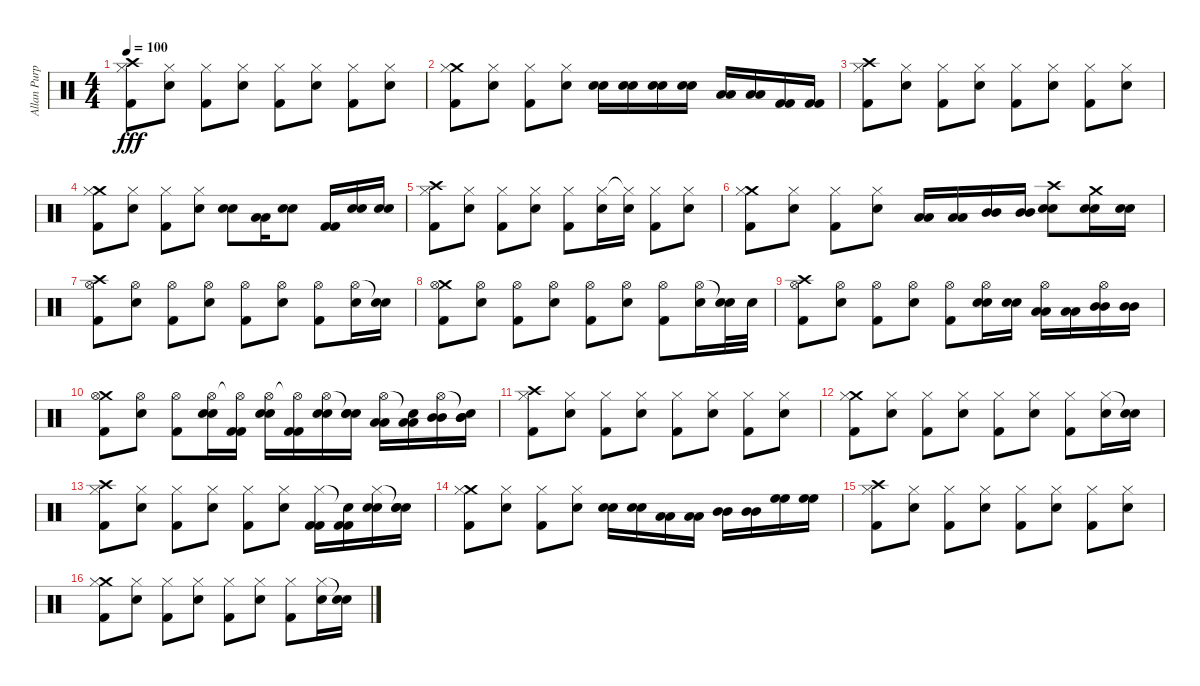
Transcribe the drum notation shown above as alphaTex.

\track ("Allan Purple" "Allan Purp") {instrument percussion}
\staff {score}
\articulation defaults
\ts (4 4)
\tempo 100
\clef neutral
\ks c
("Crash high (hit)" "Hi-Hat (closed)" "Kick (hit) 2").8{dy fff} ("Hi-Hat (closed)" "Electric Snare (hit)").8 ("Hi-Hat (closed)" "Kick (hit) 2").8 ("Hi-Hat (closed)" "Electric Snare (hit)").8 ("Hi-Hat (closed)" "Kick (hit) 2").8 ("Hi-Hat (closed)" "Electric Snare (hit)").8 ("Hi-Hat (closed)" "Kick (hit) 2").8 ("Hi-Hat (closed)" "Electric Snare (hit)").8 |
("Crash medium (hit)" "Hi-Hat (closed)" "Kick (hit) 2").8 ("Hi-Hat (closed)" "Electric Snare (hit)").8 ("Hi-Hat (closed)" "Kick (hit) 2").8 ("Hi-Hat (closed)" "Electric Snare (hit)").8 ("Electric Snare (hit)" "Electric Snare (hit)").16 ("Electric Snare (hit)" "Electric Snare (hit)").16 ("Electric Snare (hit)" "Electric Snare (hit)").16 ("Electric Snare (hit)" "Electric Snare (hit)").16 ("Low Tom (hit)" "Low Tom (hit)").16 ("Low Tom (hit)" "Low Tom (hit)").16 ("Kick (hit) 2" "Kick (hit) 2").16 ("Kick (hit) 2" "Kick (hit) 2").16 |
("Crash high (hit)" "Hi-Hat (closed)" "Kick (hit) 2").8 ("Hi-Hat (closed)" "Electric Snare (hit)").8 ("Hi-Hat (closed)" "Kick (hit) 2").8 ("Hi-Hat (closed)" "Electric Snare (hit)").8 ("Hi-Hat (closed)" "Kick (hit) 2").8 ("Hi-Hat (closed)" "Electric Snare (hit)").8 ("Hi-Hat (closed)" "Kick (hit) 2").8 ("Hi-Hat (closed)" "Electric Snare (hit)").8 |
("Crash medium (hit)" "Hi-Hat (closed)" "Kick (hit) 2").8 ("Hi-Hat (closed)" "Electric Snare (hit)").8 ("Hi-Hat (closed)" "Kick (hit) 2").8 ("Hi-Hat (closed)" "Electric Snare (hit)").8 ("Electric Snare (hit)" "Electric Snare (hit)").8 ("Low Tom (hit)" "Low Tom (hit)").16 ("Electric Snare (hit)" "Electric Snare (hit)").8 ("Kick (hit) 2" "Kick (hit) 2").16 ("Electric Snare (hit)" "Electric Snare (hit)").16 ("Electric Snare (hit)" "Electric Snare (hit)").16 |
("Crash high (hit)" "Hi-Hat (closed)" "Kick (hit) 2").8 ("Hi-Hat (closed)" "Electric Snare (hit)").8 ("Hi-Hat (closed)" "Kick (hit) 2").8 ("Hi-Hat (closed)" "Electric Snare (hit)").8 ("Hi-Hat (closed)" "Kick (hit) 2").8 ("Hi-Hat (closed)" "Electric Snare (hit)").16 ("Hi-Hat (closed)"{t} "Electric Snare (hit)").16 ("Hi-Hat (closed)" "Kick (hit) 2").8 ("Hi-Hat (closed)" "Electric Snare (hit)").8 |
("Crash medium (hit)" "Hi-Hat (closed)" "Kick (hit) 2").8 ("Hi-Hat (closed)" "Electric Snare (hit)").8 ("Hi-Hat (closed)" "Kick (hit) 2").8 ("Hi-Hat (closed)" "Electric Snare (hit)").8 ("Low Tom (hit)" "Low Tom (hit)").16 ("Low Tom (hit)" "Low Tom (hit)").16 ("Mid Tom (hit)" "Mid Tom (hit)").16 ("Mid Tom (hit)" "Mid Tom (hit)").16 ("Crash high (hit)" "Snare (hit) 2" "Snare (hit) 2").8 ("Crash medium (hit)" "Electric Snare (hit)" "Electric Snare (hit)").16 ("Electric Snare (hit)" "Electric Snare (hit)").16 |
("Crash high (hit)" "Hi-Hat (open)" "Kick (hit) 2").8 ("Hi-Hat (open)" "Electric Snare (hit)").8 ("Hi-Hat (open)" "Kick (hit) 2").8 ("Hi-Hat (open)" "Electric Snare (hit)").8 ("Hi-Hat (open)" "Kick (hit) 2").8 ("Hi-Hat (open)" "Electric Snare (hit)").8 ("Hi-Hat (open)" "Kick (hit) 2").8 ("Hi-Hat (open)" "Electric Snare (hit)").16 ("Snare (hit)"{t} "Electric Snare (hit)").16 |
("Crash medium (hit)" "Hi-Hat (open)" "Kick (hit) 2").8 ("Hi-Hat (open)" "Electric Snare (hit)").8 ("Hi-Hat (open)" "Kick (hit) 2").8 ("Hi-Hat (open)" "Electric Snare (hit)").8 ("Hi-Hat (open)" "Kick (hit) 2").8 ("Hi-Hat (open)" "Electric Snare (hit)").8 ("Hi-Hat (open)" "Kick (hit) 2").8 ("Hi-Hat (open)" "Electric Snare (hit)").16 ("Snare (hit)"{t} "Electric Snare (hit)").32 "Electric Snare (hit)".32 |
("Crash high (hit)" "Hi-Hat (open)" "Kick (hit) 2").8 ("Hi-Hat (open)" "Electric Snare (hit)").8 ("Hi-Hat (open)" "Kick (hit) 2").8 ("Hi-Hat (open)" "Electric Snare (hit)").8 ("Hi-Hat (open)" "Kick (hit) 2").8 ("Hi-Hat (open)" "Electric Snare (hit)" "Electric Snare (hit)").16 ("Electric Snare (hit)" "Electric Snare (hit)").16 ("Hi-Hat (open)" "Low Tom (hit)" "Low Tom (hit)").16 ("Low Tom (hit)" "Low Tom (hit)").16 ("Hi-Hat (open)" "Mid Tom (hit)" "Mid Tom (hit)").16 ("Mid Tom (hit)" "Mid Tom (hit)").16 |
("Crash medium (hit)" "Hi-Hat (open)" "Kick (hit) 2").8 ("Hi-Hat (open)" "Electric Snare (hit)").8 ("Hi-Hat (open)" "Kick (hit) 2").8 ("Hi-Hat (open)" "Electric Snare (hit)" "Electric Snare (hit)").16 ("Hi-Hat (open)"{t} "Kick (hit) 2" "Kick (hit) 2").16 ("Hi-Hat (open)" "Electric Snare (hit)" "Electric Snare (hit)").16 ("Hi-Hat (open)"{t} "Kick (hit) 2" "Kick (hit) 2").16 ("Hi-Hat (open)" "Electric Snare (hit)" "Electric Snare (hit)").16 ("Snare (hit)"{t} "Electric Snare (hit)" "Electric Snare (hit)").16 ("Hi-Hat (open)" "Low Tom (hit)" "Low Tom (hit)").16 ("Snare (hit)"{t} "Low Tom (hit)" "Low Tom (hit)").16 ("Hi-Hat (open)" "Mid Tom (hit)" "Mid Tom (hit)").16 ("Snare (hit)"{t} "Mid Tom (hit)" "Mid Tom (hit)").16 |
("Crash high (hit)" "Hi-Hat (closed)" "Kick (hit) 2").8 ("Hi-Hat (closed)" "Electric Snare (hit)").8 ("Hi-Hat (closed)" "Kick (hit) 2").8 ("Hi-Hat (closed)" "Electric Snare (hit)").8 ("Hi-Hat (closed)" "Kick (hit) 2").8 ("Hi-Hat (closed)" "Electric Snare (hit)").8 ("Hi-Hat (closed)" "Kick (hit) 2").8 ("Hi-Hat (closed)" "Electric Snare (hit)").8 |
("Crash medium (hit)" "Hi-Hat (closed)" "Kick (hit) 2").8 ("Hi-Hat (closed)" "Electric Snare (hit)").8 ("Hi-Hat (closed)" "Kick (hit) 2").8 ("Hi-Hat (closed)" "Electric Snare (hit)").8 ("Hi-Hat (closed)" "Kick (hit) 2").8 ("Hi-Hat (closed)" "Electric Snare (hit)").8 ("Hi-Hat (closed)" "Kick (hit) 2").8 ("Hi-Hat (closed)" "Electric Snare (hit)").16 ("Snare (hit)"{t} "Electric Snare (hit)").16 |
("Crash high (hit)" "Hi-Hat (closed)" "Kick (hit) 2").8 ("Hi-Hat (closed)" "Electric Snare (hit)").8 ("Hi-Hat (closed)" "Kick (hit) 2").8 ("Hi-Hat (closed)" "Electric Snare (hit)").8 ("Hi-Hat (closed)" "Kick (hit) 2").8 ("Hi-Hat (closed)" "Electric Snare (hit)").8 ("Hi-Hat (closed)" "Kick (hit) 2" "Kick (hit) 2").16 ("Snare (hit)"{t} "Kick (hit) 2" "Kick (hit) 2").16 ("Hi-Hat (closed)" "Electric Snare (hit)" "Electric Snare (hit)").16 ("Snare (hit)"{t} "Electric Snare (hit)" "Electric Snare (hit)").16 |
("Crash medium (hit)" "Hi-Hat (closed)" "Kick (hit) 2").8 ("Hi-Hat (closed)" "Electric Snare (hit)").8 ("Hi-Hat (closed)" "Kick (hit) 2").8 ("Hi-Hat (closed)" "Electric Snare (hit)").8 ("Electric Snare (hit)" "Electric Snare (hit)").16 ("Electric Snare (hit)" "Electric Snare (hit)").16 ("Low Tom (hit)" "Low Tom (hit)").16 ("Low Tom (hit)" "Low Tom (hit)").16 ("Mid Tom (hit)" "Mid Tom (hit)").16 ("Mid Tom (hit)" "Mid Tom (hit)").16 ("High Floor Tom (hit)" "High Floor Tom (hit)").16 ("High Floor Tom (hit)" "High Floor Tom (hit)").16 |
("Crash high (hit)" "Hi-Hat (closed)" "Kick (hit) 2").8 ("Hi-Hat (closed)" "Electric Snare (hit)").8 ("Hi-Hat (closed)" "Kick (hit) 2").8 ("Hi-Hat (closed)" "Electric Snare (hit)").8 ("Hi-Hat (closed)" "Kick (hit) 2").8 ("Hi-Hat (closed)" "Electric Snare (hit)").8 ("Hi-Hat (closed)" "Kick (hit) 2").8 ("Hi-Hat (closed)" "Electric Snare (hit)").8 |
("Crash medium (hit)" "Hi-Hat (closed)" "Kick (hit) 2").8 ("Hi-Hat (closed)" "Electric Snare (hit)").8 ("Hi-Hat (closed)" "Kick (hit) 2").8 ("Hi-Hat (closed)" "Electric Snare (hit)").8 ("Hi-Hat (closed)" "Kick (hit) 2").8 ("Hi-Hat (closed)" "Electric Snare (hit)").8 ("Hi-Hat (closed)" "Kick (hit) 2").8 ("Hi-Hat (closed)" "Electric Snare (hit)").16 ("Snare (hit)"{t} "Electric Snare (hit)").16
